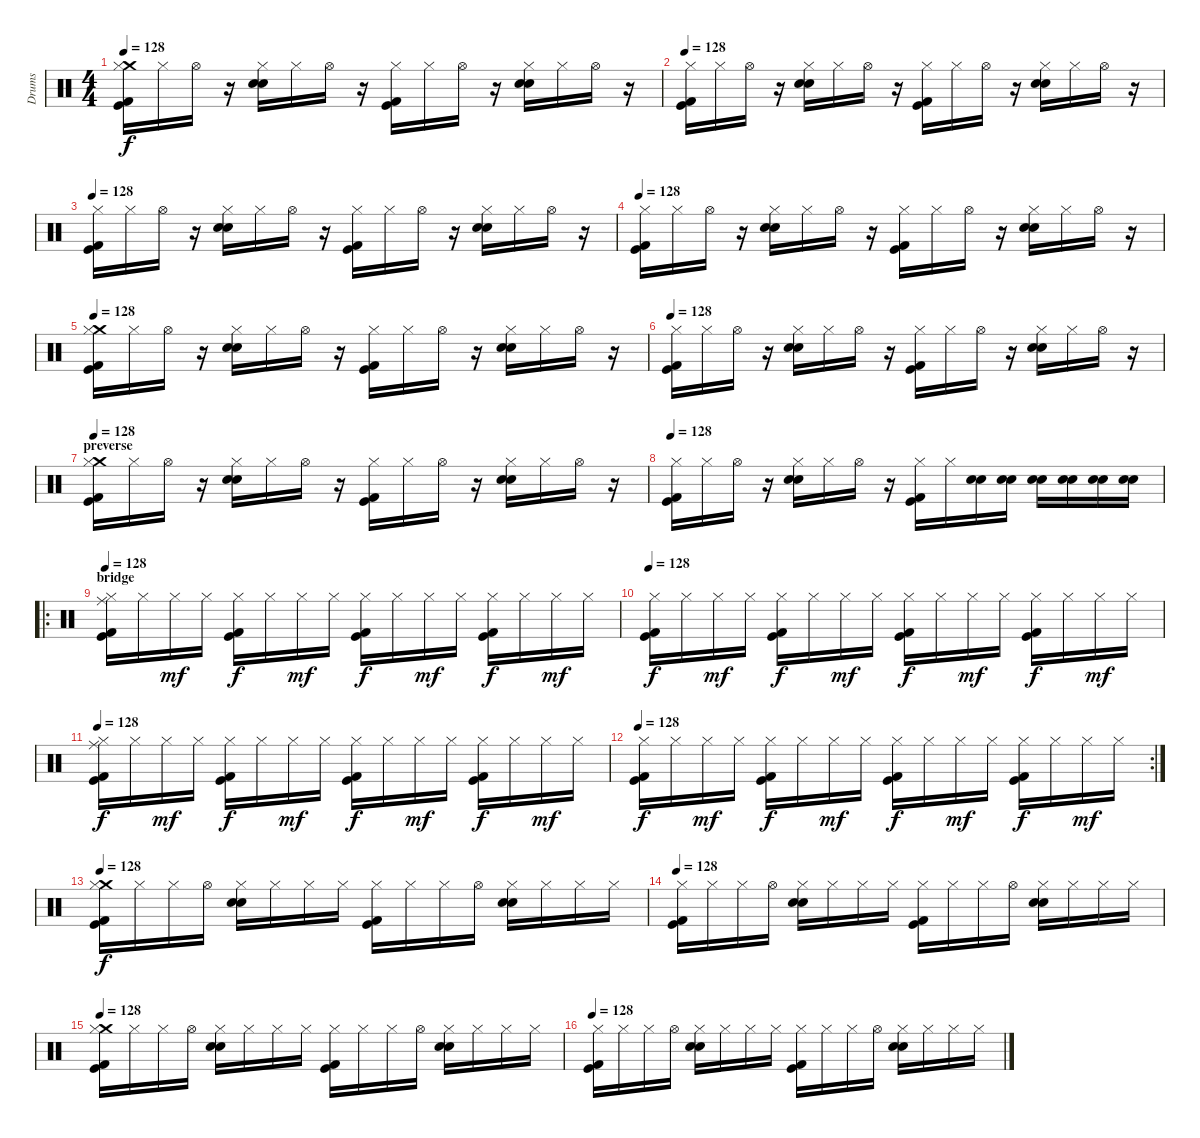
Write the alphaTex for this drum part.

\track ("Drums" "Drums") {instrument percussion}
\staff {score}
\articulation defaults
\ts (4 4)
\tempo 128
\clef neutral
\ks c
("Crash medium (hit)" "Hi-Hat (closed)" "Kick (hit) 2" "Kick (hit)").16{dy f} "Hi-Hat (closed)".16 "Hi-Hat (open)".16 r.16 ("Hi-Hat (closed)" "Snare (hit) 2" "Snare (hit) 2").16 "Hi-Hat (closed)".16 "Hi-Hat (open)".16 r.16 ("Hi-Hat (closed)" "Kick (hit) 2" "Kick (hit)").16 "Hi-Hat (closed)".16 "Hi-Hat (open)".16 r.16 ("Hi-Hat (closed)" "Snare (hit) 2" "Snare (hit) 2").16 "Hi-Hat (closed)".16 "Hi-Hat (open)".16 r.16 |
\tempo 128
("Hi-Hat (closed)" "Kick (hit) 2" "Kick (hit)").16 "Hi-Hat (closed)".16 "Hi-Hat (open)".16 r.16 ("Hi-Hat (closed)" "Snare (hit) 2" "Snare (hit) 2").16 "Hi-Hat (closed)".16 "Hi-Hat (open)".16 r.16 ("Hi-Hat (closed)" "Kick (hit) 2" "Kick (hit)").16 "Hi-Hat (closed)".16 "Hi-Hat (open)".16 r.16 ("Hi-Hat (closed)" "Snare (hit) 2" "Snare (hit) 2").16 "Hi-Hat (closed)".16 "Hi-Hat (open)".16 r.16 |
\tempo 128
("Hi-Hat (closed)" "Kick (hit) 2" "Kick (hit)").16 "Hi-Hat (closed)".16 "Hi-Hat (open)".16 r.16 ("Hi-Hat (closed)" "Snare (hit) 2" "Snare (hit) 2").16 "Hi-Hat (closed)".16 "Hi-Hat (open)".16 r.16 ("Hi-Hat (closed)" "Kick (hit) 2" "Kick (hit)").16 "Hi-Hat (closed)".16 "Hi-Hat (open)".16 r.16 ("Hi-Hat (closed)" "Snare (hit) 2" "Snare (hit) 2").16 "Hi-Hat (closed)".16 "Hi-Hat (open)".16 r.16 |
\tempo 128
("Hi-Hat (closed)" "Kick (hit) 2" "Kick (hit)").16 "Hi-Hat (closed)".16 "Hi-Hat (open)".16 r.16 ("Hi-Hat (closed)" "Snare (hit) 2" "Snare (hit) 2").16 "Hi-Hat (closed)".16 "Hi-Hat (open)".16 r.16 ("Hi-Hat (closed)" "Kick (hit) 2" "Kick (hit)").16 "Hi-Hat (closed)".16 "Hi-Hat (open)".16 r.16 ("Hi-Hat (closed)" "Snare (hit) 2" "Snare (hit) 2").16 "Hi-Hat (closed)".16 "Hi-Hat (open)".16 r.16 |
\tempo 128
("Crash medium (hit)" "Hi-Hat (closed)" "Kick (hit) 2" "Kick (hit)").16 "Hi-Hat (closed)".16 "Hi-Hat (open)".16 r.16 ("Hi-Hat (closed)" "Snare (hit) 2" "Snare (hit) 2").16 "Hi-Hat (closed)".16 "Hi-Hat (open)".16 r.16 ("Hi-Hat (closed)" "Kick (hit) 2" "Kick (hit)").16 "Hi-Hat (closed)".16 "Hi-Hat (open)".16 r.16 ("Hi-Hat (closed)" "Snare (hit) 2" "Snare (hit) 2").16 "Hi-Hat (closed)".16 "Hi-Hat (open)".16 r.16 |
\tempo 128
("Hi-Hat (closed)" "Kick (hit) 2" "Kick (hit)").16 "Hi-Hat (closed)".16 "Hi-Hat (open)".16 r.16 ("Hi-Hat (closed)" "Snare (hit) 2" "Snare (hit) 2").16 "Hi-Hat (closed)".16 "Hi-Hat (open)".16 r.16 ("Hi-Hat (closed)" "Kick (hit) 2" "Kick (hit)").16 "Hi-Hat (closed)".16 "Hi-Hat (open)".16 r.16 ("Hi-Hat (closed)" "Snare (hit) 2" "Snare (hit) 2").16 "Hi-Hat (closed)".16 "Hi-Hat (open)".16 r.16 |
\section ("" "preverse")
\tempo 128
("Crash medium (hit)" "Hi-Hat (closed)" "Kick (hit) 2" "Kick (hit)").16 "Hi-Hat (closed)".16 "Hi-Hat (open)".16 r.16 ("Hi-Hat (closed)" "Snare (hit) 2" "Snare (hit) 2").16 "Hi-Hat (closed)".16 "Hi-Hat (open)".16 r.16 ("Hi-Hat (closed)" "Kick (hit) 2" "Kick (hit)").16 "Hi-Hat (closed)".16 "Hi-Hat (open)".16 r.16 ("Hi-Hat (closed)" "Snare (hit) 2" "Snare (hit) 2").16 "Hi-Hat (closed)".16 "Hi-Hat (open)".16 r.16 |
\tempo 128
("Hi-Hat (closed)" "Kick (hit) 2" "Kick (hit)").16 "Hi-Hat (closed)".16 "Hi-Hat (open)".16 r.16 ("Hi-Hat (closed)" "Snare (hit) 2" "Snare (hit) 2").16 "Hi-Hat (closed)".16 "Hi-Hat (open)".16 r.16 ("Hi-Hat (closed)" "Kick (hit) 2" "Kick (hit)").16 "Hi-Hat (closed)".16 ("Snare (hit) 2" "Snare (hit) 2").16 ("Snare (hit) 2" "Snare (hit) 2").16 ("Snare (hit) 2" "Snare (hit) 2").16 ("Snare (hit) 2" "Snare (hit) 2").16 ("Snare (hit) 2" "Snare (hit) 2").16 ("Snare (hit) 2" "Snare (hit) 2").16 |
\ro
\section ("" "bridge")
\tempo 128
("Ride (middle)" "Hi-Hat (closed)" "Kick (hit) 2" "Kick (hit)").16 "Hi-Hat (closed)".16 "Hi-Hat (closed)".16{dy mf} "Hi-Hat (closed)".16 ("Hi-Hat (closed)" "Kick (hit) 2" "Kick (hit)").16{dy f} "Hi-Hat (closed)".16 "Hi-Hat (closed)".16{dy mf} "Hi-Hat (closed)".16 ("Hi-Hat (closed)" "Kick (hit) 2" "Kick (hit)").16{dy f} "Hi-Hat (closed)".16 "Hi-Hat (closed)".16{dy mf} "Hi-Hat (closed)".16 ("Hi-Hat (closed)" "Kick (hit) 2" "Kick (hit)").16{dy f} "Hi-Hat (closed)".16 "Hi-Hat (closed)".16{dy mf} "Hi-Hat (closed)".16 |
\tempo 128
("Hi-Hat (closed)" "Kick (hit) 2" "Kick (hit)").16{dy f} "Hi-Hat (closed)".16 "Hi-Hat (closed)".16{dy mf} "Hi-Hat (closed)".16 ("Hi-Hat (closed)" "Kick (hit) 2" "Kick (hit)").16{dy f} "Hi-Hat (closed)".16 "Hi-Hat (closed)".16{dy mf} "Hi-Hat (closed)".16 ("Hi-Hat (closed)" "Kick (hit) 2" "Kick (hit)").16{dy f} "Hi-Hat (closed)".16 "Hi-Hat (closed)".16{dy mf} "Hi-Hat (closed)".16 ("Hi-Hat (closed)" "Kick (hit) 2" "Kick (hit)").16{dy f} "Hi-Hat (closed)".16 "Hi-Hat (closed)".16{dy mf} "Hi-Hat (closed)".16 |
\tempo 128
("Ride (middle)" "Hi-Hat (closed)" "Kick (hit) 2" "Kick (hit)").16{dy f} "Hi-Hat (closed)".16 "Hi-Hat (closed)".16{dy mf} "Hi-Hat (closed)".16 ("Hi-Hat (closed)" "Kick (hit) 2" "Kick (hit)").16{dy f} "Hi-Hat (closed)".16 "Hi-Hat (closed)".16{dy mf} "Hi-Hat (closed)".16 ("Hi-Hat (closed)" "Kick (hit) 2" "Kick (hit)").16{dy f} "Hi-Hat (closed)".16 "Hi-Hat (closed)".16{dy mf} "Hi-Hat (closed)".16 ("Hi-Hat (closed)" "Kick (hit) 2" "Kick (hit)").16{dy f} "Hi-Hat (closed)".16 "Hi-Hat (closed)".16{dy mf} "Hi-Hat (closed)".16 |
\rc 2
\tempo 128
("Hi-Hat (closed)" "Kick (hit) 2" "Kick (hit)").16{dy f} "Hi-Hat (closed)".16 "Hi-Hat (closed)".16{dy mf} "Hi-Hat (closed)".16 ("Hi-Hat (closed)" "Kick (hit) 2" "Kick (hit)").16{dy f} "Hi-Hat (closed)".16 "Hi-Hat (closed)".16{dy mf} "Hi-Hat (closed)".16 ("Hi-Hat (closed)" "Kick (hit) 2" "Kick (hit)").16{dy f} "Hi-Hat (closed)".16 "Hi-Hat (closed)".16{dy mf} "Hi-Hat (closed)".16 ("Hi-Hat (closed)" "Kick (hit) 2" "Kick (hit)").16{dy f} "Hi-Hat (closed)".16 "Hi-Hat (closed)".16{dy mf} "Hi-Hat (closed)".16 |
\tempo 128
("Crash medium (hit)" "Hi-Hat (closed)" "Kick (hit) 2" "Kick (hit)").16{dy f} "Hi-Hat (closed)".16 "Hi-Hat (closed)".16 "Hi-Hat (open)".16 ("Hi-Hat (closed)" "Snare (hit) 2" "Snare (hit) 2").16 "Hi-Hat (closed)".16 "Hi-Hat (closed)".16 "Hi-Hat (closed)".16 ("Hi-Hat (closed)" "Kick (hit) 2" "Kick (hit)").16 "Hi-Hat (closed)".16 "Hi-Hat (closed)".16 "Hi-Hat (open)".16 ("Hi-Hat (closed)" "Snare (hit) 2" "Snare (hit) 2").16 "Hi-Hat (closed)".16 "Hi-Hat (closed)".16 "Hi-Hat (closed)".16 |
\tempo 128
("Hi-Hat (closed)" "Kick (hit) 2" "Kick (hit)").16 "Hi-Hat (closed)".16 "Hi-Hat (closed)".16 "Hi-Hat (open)".16 ("Hi-Hat (closed)" "Snare (hit) 2" "Snare (hit) 2").16 "Hi-Hat (closed)".16 "Hi-Hat (closed)".16 "Hi-Hat (closed)".16 ("Hi-Hat (closed)" "Kick (hit) 2" "Kick (hit)").16 "Hi-Hat (closed)".16 "Hi-Hat (closed)".16 "Hi-Hat (open)".16 ("Hi-Hat (closed)" "Snare (hit) 2" "Snare (hit) 2").16 "Hi-Hat (closed)".16 "Hi-Hat (closed)".16 "Hi-Hat (closed)".16 |
\tempo 128
("Crash medium (hit)" "Hi-Hat (closed)" "Kick (hit) 2" "Kick (hit)").16 "Hi-Hat (closed)".16 "Hi-Hat (closed)".16 "Hi-Hat (open)".16 ("Hi-Hat (closed)" "Snare (hit) 2" "Snare (hit) 2").16 "Hi-Hat (closed)".16 "Hi-Hat (closed)".16 "Hi-Hat (closed)".16 ("Hi-Hat (closed)" "Kick (hit) 2" "Kick (hit)").16 "Hi-Hat (closed)".16 "Hi-Hat (closed)".16 "Hi-Hat (open)".16 ("Hi-Hat (closed)" "Snare (hit) 2" "Snare (hit) 2").16 "Hi-Hat (closed)".16 "Hi-Hat (closed)".16 "Hi-Hat (closed)".16 |
\tempo 128
("Hi-Hat (closed)" "Kick (hit) 2" "Kick (hit)").16 "Hi-Hat (closed)".16 "Hi-Hat (closed)".16 "Hi-Hat (open)".16 ("Hi-Hat (closed)" "Snare (hit) 2" "Snare (hit) 2").16 "Hi-Hat (closed)".16 "Hi-Hat (closed)".16 "Hi-Hat (closed)".16 ("Hi-Hat (closed)" "Kick (hit) 2" "Kick (hit)").16 "Hi-Hat (closed)".16 "Hi-Hat (closed)".16 "Hi-Hat (open)".16 ("Hi-Hat (closed)" "Snare (hit) 2" "Snare (hit) 2").16 "Hi-Hat (closed)".16 "Hi-Hat (closed)".16 "Hi-Hat (closed)".16
